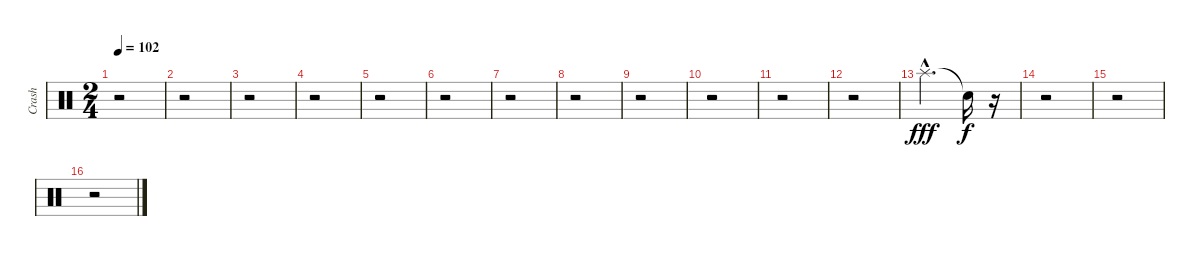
\track ("Crash" "Crash") {instrument percussion}
\staff {score}
\articulation defaults
\ts (2 4)
\tempo 102
\clef neutral
\ks c
r.2{dy f} |
r.2 |
r.2 |
r.2 |
r.2 |
r.2 |
r.2 |
r.2 |
r.2 |
r.2 |
r.2 |
r.2 |
"Splash (hit)"{hac}.4{d dy fff} "Snare (hit)"{t}.16{dy f} r.16 |
r.2 |
r.2 |
r.2
